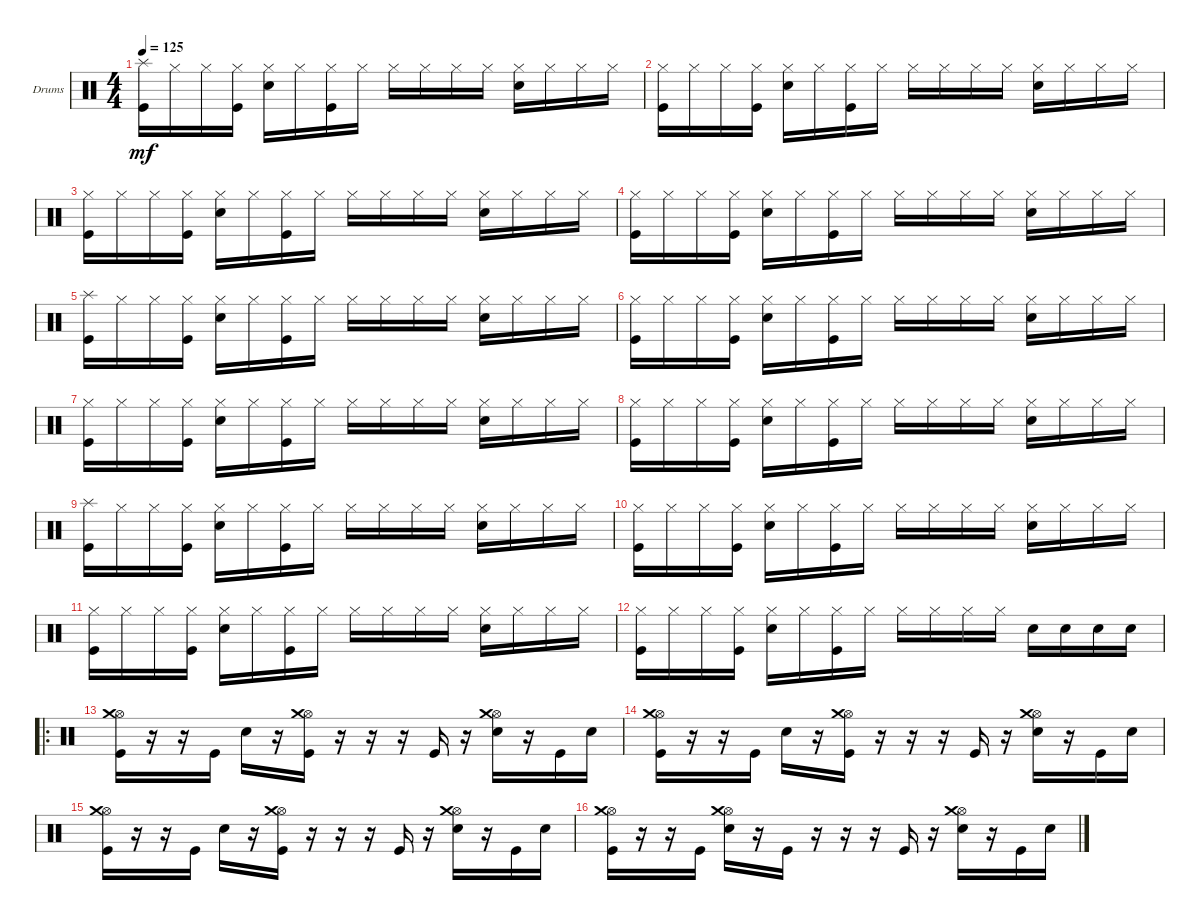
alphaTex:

\defaultSystemsLayout 4
\bracketExtendMode groupsimilarinstruments
\firstSystemTrackNameOrientation horizontal
\otherSystemsTrackNameOrientation horizontal
\track ("Ударные" "Drums") {instrument percussion}
\staff {score}
\articulation defaults
\ts (4 4)
\tempo 125
\clef neutral
\ks c
("Splash (hit)" "Kick (hit)").16{dy mf} "Hi-Hat (closed)".16 "Hi-Hat (closed)".16 ("Hi-Hat (closed)" "Kick (hit)").16 ("Hi-Hat (closed)" "Snare (hit) 2").16 "Hi-Hat (closed)".16 ("Hi-Hat (closed)" "Kick (hit)").16 "Hi-Hat (closed)".16 "Hi-Hat (closed)".16 "Hi-Hat (closed)".16 "Hi-Hat (closed)".16 "Hi-Hat (closed)".16 ("Hi-Hat (closed)" "Snare (hit) 2").16 "Hi-Hat (closed)".16 "Hi-Hat (closed)".16 "Hi-Hat (closed)".16 |
("Kick (hit)" "Hi-Hat (closed)").16 "Hi-Hat (closed)".16 "Hi-Hat (closed)".16 ("Hi-Hat (closed)" "Kick (hit)").16 ("Hi-Hat (closed)" "Snare (hit) 2").16 "Hi-Hat (closed)".16 ("Hi-Hat (closed)" "Kick (hit)").16 "Hi-Hat (closed)".16 "Hi-Hat (closed)".16 "Hi-Hat (closed)".16 "Hi-Hat (closed)".16 "Hi-Hat (closed)".16 ("Hi-Hat (closed)" "Snare (hit) 2").16 "Hi-Hat (closed)".16 "Hi-Hat (closed)".16 "Hi-Hat (closed)".16 |
("Kick (hit)" "Hi-Hat (closed)").16 "Hi-Hat (closed)".16 "Hi-Hat (closed)".16 ("Hi-Hat (closed)" "Kick (hit)").16 ("Hi-Hat (closed)" "Snare (hit) 2").16 "Hi-Hat (closed)".16 ("Hi-Hat (closed)" "Kick (hit)").16 "Hi-Hat (closed)".16 "Hi-Hat (closed)".16 "Hi-Hat (closed)".16 "Hi-Hat (closed)".16 "Hi-Hat (closed)".16 ("Hi-Hat (closed)" "Snare (hit) 2").16 "Hi-Hat (closed)".16 "Hi-Hat (closed)".16 "Hi-Hat (closed)".16 |
("Kick (hit)" "Hi-Hat (closed)").16 "Hi-Hat (closed)".16 "Hi-Hat (closed)".16 ("Hi-Hat (closed)" "Kick (hit)").16 ("Hi-Hat (closed)" "Snare (hit) 2").16 "Hi-Hat (closed)".16 ("Hi-Hat (closed)" "Kick (hit)").16 "Hi-Hat (closed)".16 "Hi-Hat (closed)".16 "Hi-Hat (closed)".16 "Hi-Hat (closed)".16 "Hi-Hat (closed)".16 ("Hi-Hat (closed)" "Snare (hit) 2").16 "Hi-Hat (closed)".16 "Hi-Hat (closed)".16 "Hi-Hat (closed)".16 |
("Splash (hit)" "Kick (hit)").16 "Hi-Hat (closed)".16 "Hi-Hat (closed)".16 ("Hi-Hat (closed)" "Kick (hit)").16 ("Hi-Hat (closed)" "Snare (hit) 2").16 "Hi-Hat (closed)".16 ("Hi-Hat (closed)" "Kick (hit)").16 "Hi-Hat (closed)".16 "Hi-Hat (closed)".16 "Hi-Hat (closed)".16 "Hi-Hat (closed)".16 "Hi-Hat (closed)".16 ("Hi-Hat (closed)" "Snare (hit) 2").16 "Hi-Hat (closed)".16 "Hi-Hat (closed)".16 "Hi-Hat (closed)".16 |
("Kick (hit)" "Hi-Hat (closed)").16 "Hi-Hat (closed)".16 "Hi-Hat (closed)".16 ("Hi-Hat (closed)" "Kick (hit)").16 ("Hi-Hat (closed)" "Snare (hit) 2").16 "Hi-Hat (closed)".16 ("Hi-Hat (closed)" "Kick (hit)").16 "Hi-Hat (closed)".16 "Hi-Hat (closed)".16 "Hi-Hat (closed)".16 "Hi-Hat (closed)".16 "Hi-Hat (closed)".16 ("Hi-Hat (closed)" "Snare (hit) 2").16 "Hi-Hat (closed)".16 "Hi-Hat (closed)".16 "Hi-Hat (closed)".16 |
("Kick (hit)" "Hi-Hat (closed)").16 "Hi-Hat (closed)".16 "Hi-Hat (closed)".16 ("Hi-Hat (closed)" "Kick (hit)").16 ("Hi-Hat (closed)" "Snare (hit) 2").16 "Hi-Hat (closed)".16 ("Hi-Hat (closed)" "Kick (hit)").16 "Hi-Hat (closed)".16 "Hi-Hat (closed)".16 "Hi-Hat (closed)".16 "Hi-Hat (closed)".16 "Hi-Hat (closed)".16 ("Hi-Hat (closed)" "Snare (hit) 2").16 "Hi-Hat (closed)".16 "Hi-Hat (closed)".16 "Hi-Hat (closed)".16 |
("Kick (hit)" "Hi-Hat (closed)").16 "Hi-Hat (closed)".16 "Hi-Hat (closed)".16 ("Hi-Hat (closed)" "Kick (hit)").16 ("Hi-Hat (closed)" "Snare (hit) 2").16 "Hi-Hat (closed)".16 ("Hi-Hat (closed)" "Kick (hit)").16 "Hi-Hat (closed)".16 "Hi-Hat (closed)".16 "Hi-Hat (closed)".16 "Hi-Hat (closed)".16 "Hi-Hat (closed)".16 ("Hi-Hat (closed)" "Snare (hit) 2").16 "Hi-Hat (closed)".16 "Hi-Hat (closed)".16 "Hi-Hat (closed)".16 |
("Splash (hit)" "Kick (hit)").16 "Hi-Hat (closed)".16 "Hi-Hat (closed)".16 ("Hi-Hat (closed)" "Kick (hit)").16 ("Hi-Hat (closed)" "Snare (hit) 2").16 "Hi-Hat (closed)".16 ("Hi-Hat (closed)" "Kick (hit)").16 "Hi-Hat (closed)".16 "Hi-Hat (closed)".16 "Hi-Hat (closed)".16 "Hi-Hat (closed)".16 "Hi-Hat (closed)".16 ("Hi-Hat (closed)" "Snare (hit) 2").16 "Hi-Hat (closed)".16 "Hi-Hat (closed)".16 "Hi-Hat (closed)".16 |
("Kick (hit)" "Hi-Hat (closed)").16 "Hi-Hat (closed)".16 "Hi-Hat (closed)".16 ("Hi-Hat (closed)" "Kick (hit)").16 ("Hi-Hat (closed)" "Snare (hit) 2").16 "Hi-Hat (closed)".16 ("Hi-Hat (closed)" "Kick (hit)").16 "Hi-Hat (closed)".16 "Hi-Hat (closed)".16 "Hi-Hat (closed)".16 "Hi-Hat (closed)".16 "Hi-Hat (closed)".16 ("Hi-Hat (closed)" "Snare (hit) 2").16 "Hi-Hat (closed)".16 "Hi-Hat (closed)".16 "Hi-Hat (closed)".16 |
("Kick (hit)" "Hi-Hat (closed)").16 "Hi-Hat (closed)".16 "Hi-Hat (closed)".16 ("Hi-Hat (closed)" "Kick (hit)").16 ("Hi-Hat (closed)" "Snare (hit) 2").16 "Hi-Hat (closed)".16 ("Hi-Hat (closed)" "Kick (hit)").16 "Hi-Hat (closed)".16 "Hi-Hat (closed)".16 "Hi-Hat (closed)".16 "Hi-Hat (closed)".16 "Hi-Hat (closed)".16 ("Hi-Hat (closed)" "Snare (hit) 2").16 "Hi-Hat (closed)".16 "Hi-Hat (closed)".16 "Hi-Hat (closed)".16 |
("Kick (hit)" "Hi-Hat (closed)").16 "Hi-Hat (closed)".16 "Hi-Hat (closed)".16 ("Hi-Hat (closed)" "Kick (hit)").16 ("Hi-Hat (closed)" "Snare (hit) 2").16 "Hi-Hat (closed)".16 ("Hi-Hat (closed)" "Kick (hit)").16 "Hi-Hat (closed)".16 "Hi-Hat (closed)".16 "Hi-Hat (closed)".16 "Hi-Hat (closed)".16 "Hi-Hat (closed)".16 "Snare (hit) 2".16 "Snare (hit) 2".16 "Snare (hit) 2".16 "Snare (hit) 2".16 |
\ro
("Kick (hit)" "Hi-Hat (open)" "Crash medium (hit)").16 r.16 r.16 "Kick (hit)".16 "Snare (hit) 2".16 r.16 ("Kick (hit)" "Hi-Hat (open)" "Crash medium (hit)").16 r.16 r.16 r.16 "Kick (hit)".16 r.16 ("Snare (hit) 2" "Hi-Hat (open)" "Crash medium (hit)").16 r.16 "Kick (hit)".16 "Snare (hit) 2".16 |
("Kick (hit)" "Hi-Hat (open)" "Crash medium (hit)").16 r.16 r.16 "Kick (hit)".16 "Snare (hit) 2".16 r.16 ("Kick (hit)" "Hi-Hat (open)" "Crash medium (hit)").16 r.16 r.16 r.16 "Kick (hit)".16 r.16 ("Snare (hit) 2" "Hi-Hat (open)" "Crash medium (hit)").16 r.16 "Kick (hit)".16 "Snare (hit) 2".16 |
("Kick (hit)" "Hi-Hat (open)" "Crash medium (hit)").16 r.16 r.16 "Kick (hit)".16 "Snare (hit) 2".16 r.16 ("Kick (hit)" "Hi-Hat (open)" "Crash medium (hit)").16 r.16 r.16 r.16 "Kick (hit)".16 r.16 ("Snare (hit) 2" "Hi-Hat (open)" "Crash medium (hit)").16 r.16 "Kick (hit)".16 "Snare (hit) 2".16 |
("Kick (hit)" "Hi-Hat (open)" "Crash medium (hit)").16 r.16 r.16 "Kick (hit)".16 ("Snare (hit) 2" "Hi-Hat (open)" "Crash medium (hit)").16 r.16 "Kick (hit)".16 r.16 r.16 r.16 "Kick (hit)".16 r.16 ("Snare (hit) 2" "Hi-Hat (open)" "Crash medium (hit)").16 r.16 "Kick (hit)".16 "Snare (hit) 2".16
